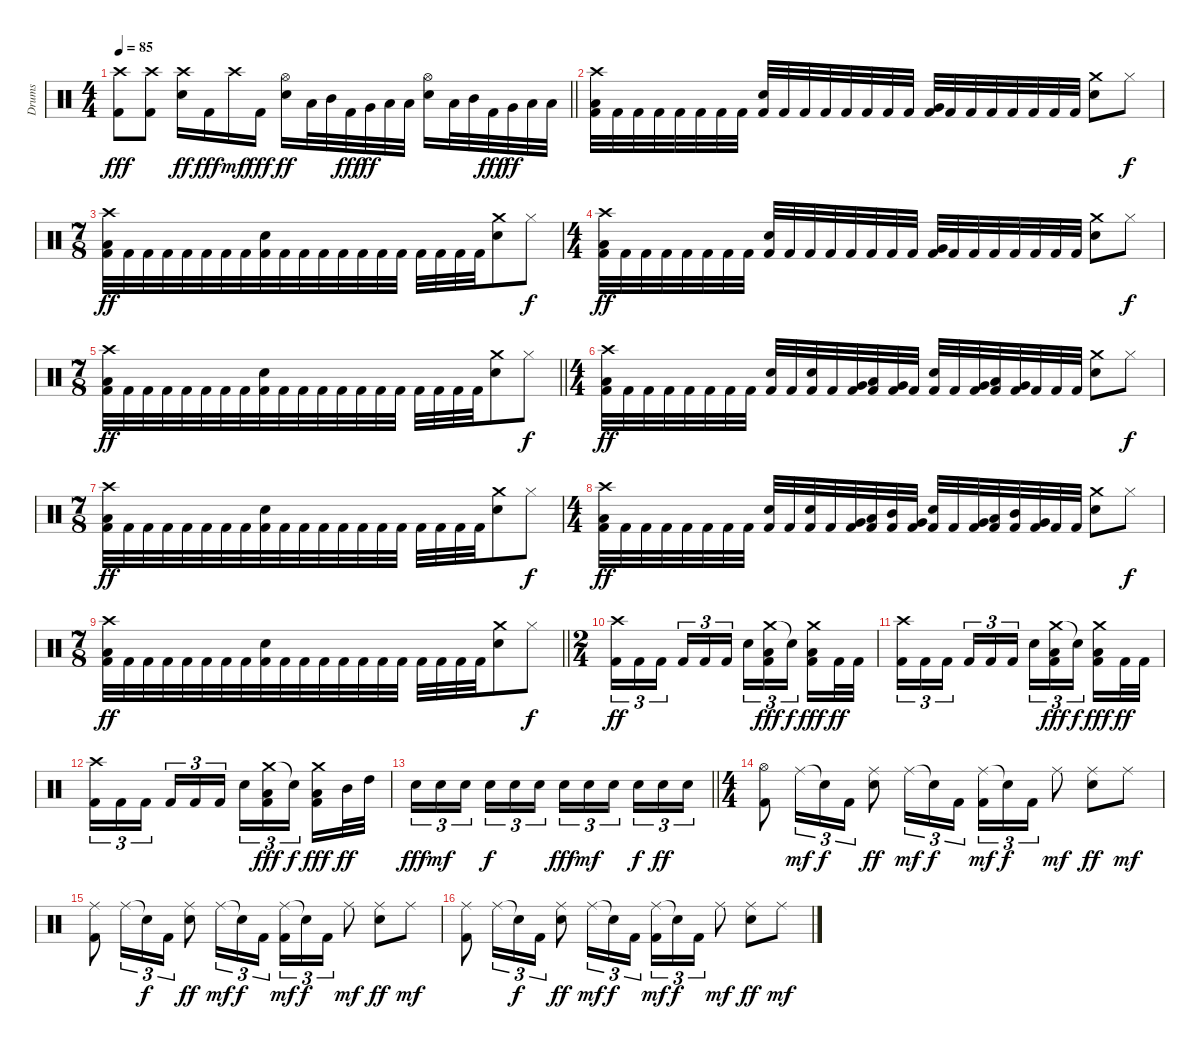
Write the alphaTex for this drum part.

\track ("Drums" "Drums") {instrument percussion}
\staff {score}
\articulation defaults
\ts (4 4)
\tempo 85
\clef neutral
\barLineRight lightlight
\ks c
("Crash high (hit)" "Kick (hit) 2").8{dy fff} ("Crash high (hit)" "Kick (hit) 2").8 ("Crash high (hit)" "Snare (hit) 2").16{dy ff} "Kick (hit) 2".16{dy fff} "Crash high (hit)".16{dy mf} "Kick (hit) 2".16{dy fff} ("Hi-Hat (open)" "Snare (hit) 2").16{dy ff} "Low Tom (hit)".32 "Mid Tom (hit)".32 "Kick (hit) 2".32{dy fff} "Very Low Tom (hit)".32{dy ff} "Low Floor Tom (hit)".32 "Low Tom (hit)".32 ("Hi-Hat (open)" "Snare (hit) 2").16 "Low Tom (hit)".32 "Mid Tom (hit)".32 "Kick (hit) 2".32{dy fff} "Very Low Tom (hit)".32{dy ff} "Low Floor Tom (hit)".32 "Low Tom (hit)".32 |
\section ("" "")
("Crash high (hit)" "Low Tom (hit)" "Kick (hit) 2").32 "Kick (hit) 2".32 "Kick (hit) 2".32 "Kick (hit) 2".32 "Kick (hit) 2".32 "Kick (hit) 2".32 "Kick (hit) 2".32 "Kick (hit) 2".32 ("Snare (hit) 2" "Kick (hit) 2").32 "Kick (hit) 2".32 "Kick (hit) 2".32 "Kick (hit) 2".32 "Kick (hit) 2".32 "Kick (hit) 2".32 "Kick (hit) 2".32 "Kick (hit) 2".32 ("Very Low Tom (hit)" "Kick (hit) 2").32 "Kick (hit) 2".32 "Kick (hit) 2".32 "Kick (hit) 2".32 "Kick (hit) 2".32 "Kick (hit) 2".32 "Kick (hit) 2".32 "Kick (hit) 2".32 ("Crash medium (hit)" "Snare (hit) 2").8 "Hi-Hat (closed)".8{dy f} |
\ts (7 8)
("Crash high (hit)" "Low Tom (hit)" "Kick (hit) 2").32{dy ff} "Kick (hit) 2".32 "Kick (hit) 2".32 "Kick (hit) 2".32 "Kick (hit) 2".32 "Kick (hit) 2".32 "Kick (hit) 2".32 "Kick (hit) 2".32 ("Snare (hit) 2" "Kick (hit) 2").32 "Kick (hit) 2".32 "Kick (hit) 2".32 "Kick (hit) 2".32 "Kick (hit) 2".32 "Kick (hit) 2".32 "Kick (hit) 2".32 "Kick (hit) 2".32 "Kick (hit) 2".32 "Kick (hit) 2".32 "Kick (hit) 2".32 "Kick (hit) 2".32 ("Crash medium (hit)" "Snare (hit) 2").8 "Hi-Hat (closed)".8{dy f} |
\ts (4 4)
("Crash high (hit)" "Low Tom (hit)" "Kick (hit) 2").32{dy ff} "Kick (hit) 2".32 "Kick (hit) 2".32 "Kick (hit) 2".32 "Kick (hit) 2".32 "Kick (hit) 2".32 "Kick (hit) 2".32 "Kick (hit) 2".32 ("Snare (hit) 2" "Kick (hit) 2").32 "Kick (hit) 2".32 "Kick (hit) 2".32 "Kick (hit) 2".32 "Kick (hit) 2".32 "Kick (hit) 2".32 "Kick (hit) 2".32 "Kick (hit) 2".32 ("Very Low Tom (hit)" "Kick (hit) 2").32 "Kick (hit) 2".32 "Kick (hit) 2".32 "Kick (hit) 2".32 "Kick (hit) 2".32 "Kick (hit) 2".32 "Kick (hit) 2".32 "Kick (hit) 2".32 ("Crash medium (hit)" "Snare (hit) 2").8 "Hi-Hat (closed)".8{dy f} |
\ts (7 8)
\barLineRight lightlight
("Crash high (hit)" "Low Tom (hit)" "Kick (hit) 2").32{dy ff} "Kick (hit) 2".32 "Kick (hit) 2".32 "Kick (hit) 2".32 "Kick (hit) 2".32 "Kick (hit) 2".32 "Kick (hit) 2".32 "Kick (hit) 2".32 ("Snare (hit) 2" "Kick (hit) 2").32 "Kick (hit) 2".32 "Kick (hit) 2".32 "Kick (hit) 2".32 "Kick (hit) 2".32 "Kick (hit) 2".32 "Kick (hit) 2".32 "Kick (hit) 2".32 "Kick (hit) 2".32 "Kick (hit) 2".32 "Kick (hit) 2".32 "Kick (hit) 2".32 ("Crash medium (hit)" "Snare (hit) 2").8 "Hi-Hat (closed)".8{dy f} |
\ts (4 4)
("Crash high (hit)" "Low Tom (hit)" "Kick (hit) 2").32{dy ff} "Kick (hit) 2".32 "Kick (hit) 2".32 "Kick (hit) 2".32 "Kick (hit) 2".32 "Kick (hit) 2".32 "Kick (hit) 2".32 "Kick (hit) 2".32 ("Snare (hit) 2" "Kick (hit) 2").32 "Kick (hit) 2".32 ("Snare (hit) 2" "Kick (hit) 2").32 "Kick (hit) 2".32 ("Very Low Tom (hit)" "Kick (hit) 2").32 ("Low Tom (hit)" "Kick (hit) 2").32 ("Very Low Tom (hit)" "Kick (hit) 2").32 "Kick (hit) 2".32 ("Snare (hit) 2" "Kick (hit) 2").32 "Kick (hit) 2".32 ("Very Low Tom (hit)" "Kick (hit) 2").32 ("Low Tom (hit)" "Kick (hit) 2").32 ("Very Low Tom (hit)" "Kick (hit) 2").32 "Kick (hit) 2".32 "Kick (hit) 2".32 "Kick (hit) 2".32 ("Crash medium (hit)" "Snare (hit) 2").8 "Hi-Hat (closed)".8{dy f} |
\ts (7 8)
("Crash high (hit)" "Low Tom (hit)" "Kick (hit) 2").32{dy ff} "Kick (hit) 2".32 "Kick (hit) 2".32 "Kick (hit) 2".32 "Kick (hit) 2".32 "Kick (hit) 2".32 "Kick (hit) 2".32 "Kick (hit) 2".32 ("Snare (hit) 2" "Kick (hit) 2").32 "Kick (hit) 2".32 "Kick (hit) 2".32 "Kick (hit) 2".32 "Kick (hit) 2".32 "Kick (hit) 2".32 "Kick (hit) 2".32 "Kick (hit) 2".32 "Kick (hit) 2".32 "Kick (hit) 2".32 "Kick (hit) 2".32 "Kick (hit) 2".32 ("Crash medium (hit)" "Snare (hit) 2").8 "Hi-Hat (closed)".8{dy f} |
\ts (4 4)
("Crash high (hit)" "Low Tom (hit)" "Kick (hit) 2").32{dy ff} "Kick (hit) 2".32 "Kick (hit) 2".32 "Kick (hit) 2".32 "Kick (hit) 2".32 "Kick (hit) 2".32 "Kick (hit) 2".32 "Kick (hit) 2".32 ("Snare (hit) 2" "Kick (hit) 2").32 "Kick (hit) 2".32 ("Snare (hit) 2" "Kick (hit) 2").32 "Kick (hit) 2".32 ("Very Low Tom (hit)" "Kick (hit) 2").32 ("Low Tom (hit)" "Kick (hit) 2").32 ("Mid Tom (hit)" "Kick (hit) 2").32 ("Very Low Tom (hit)" "Kick (hit) 2").32 ("Snare (hit) 2" "Kick (hit) 2").32 "Kick (hit) 2".32 ("Very Low Tom (hit)" "Kick (hit) 2").32 ("Low Tom (hit)" "Kick (hit) 2").32 ("Mid Tom (hit)" "Kick (hit) 2").32 ("Very Low Tom (hit)" "Kick (hit) 2").32 "Kick (hit) 2".32 "Kick (hit) 2".32 ("Crash medium (hit)" "Snare (hit) 2").8 "Hi-Hat (closed)".8{dy f} |
\ts (7 8)
\barLineRight lightlight
("Crash high (hit)" "Low Tom (hit)" "Kick (hit) 2").32{dy ff} "Kick (hit) 2".32 "Kick (hit) 2".32 "Kick (hit) 2".32 "Kick (hit) 2".32 "Kick (hit) 2".32 "Kick (hit) 2".32 "Kick (hit) 2".32 ("Snare (hit) 2" "Kick (hit) 2").32 "Kick (hit) 2".32 "Kick (hit) 2".32 "Kick (hit) 2".32 "Kick (hit) 2".32 "Kick (hit) 2".32 "Kick (hit) 2".32 "Kick (hit) 2".32 "Kick (hit) 2".32 "Kick (hit) 2".32 "Kick (hit) 2".32 "Kick (hit) 2".32 ("Crash medium (hit)" "Snare (hit) 2").8 "Hi-Hat (closed)".8{dy f} |
\ts (2 4)
\section ("" "")
("Crash high (hit)" "Kick (hit) 2").16{tu (3 2) dy ff} "Kick (hit) 2".16{tu (3 2)} "Kick (hit) 2".16{tu (3 2) beam splitsecondary} "Kick (hit) 2".16{tu (3 2)} "Kick (hit) 2".16{tu (3 2)} "Kick (hit) 2".16{tu (3 2)} "Snare (hit) 2".16{tu (3 2)} ("Crash medium (hit)" "Low Floor Tom (hit)" "Kick (hit) 2").16{tu (3 2) dy fff} "Snare (hit)"{t}.16{tu (3 2) dy f beam splitsecondary} ("Crash medium (hit)" "Low Floor Tom (hit)" "Kick (hit) 2").16{dy fff} "Kick (hit) 2".32{dy ff} "Kick (hit) 2".32 |
("Crash high (hit)" "Kick (hit) 2").16{tu (3 2)} "Kick (hit) 2".16{tu (3 2)} "Kick (hit) 2".16{tu (3 2) beam splitsecondary} "Kick (hit) 2".16{tu (3 2)} "Kick (hit) 2".16{tu (3 2)} "Kick (hit) 2".16{tu (3 2)} "Snare (hit) 2".16{tu (3 2)} ("Crash medium (hit)" "Low Floor Tom (hit)" "Kick (hit) 2").16{tu (3 2) dy fff} "Snare (hit)"{t}.16{tu (3 2) dy f beam splitsecondary} ("Crash medium (hit)" "Low Floor Tom (hit)" "Kick (hit) 2").16{dy fff} "Kick (hit) 2".32{dy ff} "Kick (hit) 2".32 |
("Crash high (hit)" "Kick (hit) 2").16{tu (3 2)} "Kick (hit) 2".16{tu (3 2)} "Kick (hit) 2".16{tu (3 2) beam splitsecondary} "Kick (hit) 2".16{tu (3 2)} "Kick (hit) 2".16{tu (3 2)} "Kick (hit) 2".16{tu (3 2)} "Snare (hit) 2".16{tu (3 2)} ("Crash medium (hit)" "Low Floor Tom (hit)" "Kick (hit) 2").16{tu (3 2) dy fff} "Snare (hit)"{t}.16{tu (3 2) dy f beam splitsecondary} ("Crash medium (hit)" "Low Floor Tom (hit)" "Kick (hit) 2").16{dy fff} "Mid Tom (hit)".32{dy ff} "High Tom (hit)".32 |
\barLineRight lightlight "Snare (hit) 2".16{tu (3 2) dy fff} "Snare (hit) 2".16{tu (3 2) dy mf} "Snare (hit) 2".16{tu (3 2) beam splitsecondary} "Snare (hit) 2".16{tu (3 2) dy f} "Snare (hit) 2".16{tu (3 2)} "Snare (hit) 2".16{tu (3 2)} "Snare (hit) 2".16{tu (3 2) dy fff} "Snare (hit) 2".16{tu (3 2) dy mf} "Snare (hit) 2".16{tu (3 2) beam splitsecondary} "Snare (hit) 2".16{tu (3 2) dy f} "Snare (hit) 2".16{tu (3 2) dy ff} "Snare (hit) 2".16{tu (3 2)}
|
\ts (4 4)
\section ("" "")
("Hi-Hat (open)" "Kick (hit) 2").8 "Ride (middle)".16{tu (3 2) dy mf} "Snare (hit)"{t}.16{tu (3 2) dy f} "Kick (hit) 2".16{tu (3 2)} ("Ride (middle)" "Snare (hit) 2").8{dy ff} "Ride (middle)".16{tu (3 2) dy mf} "Snare (hit)"{t}.16{tu (3 2) dy f} "Kick (hit) 2".16{tu (3 2)} ("Ride (middle)" "Kick (hit) 2").16{tu (3 2) dy mf} "Snare (hit)"{t}.16{tu (3 2) dy f} "Kick (hit) 2".16{tu (3 2)} "Ride (middle)".8{dy mf} ("Ride (middle)" "Snare (hit) 2").8{dy ff} "Ride (middle)".8{dy mf} |
("Ride (middle)" "Kick (hit) 2").8 "Ride (middle)".16{tu (3 2)} "Snare (hit)"{t}.16{tu (3 2) dy f} "Kick (hit) 2".16{tu (3 2)} ("Ride (middle)" "Snare (hit) 2").8{dy ff} "Ride (middle)".16{tu (3 2) dy mf} "Snare (hit)"{t}.16{tu (3 2) dy f} "Kick (hit) 2".16{tu (3 2)} ("Ride (middle)" "Kick (hit) 2").16{tu (3 2) dy mf} "Snare (hit)"{t}.16{tu (3 2) dy f} "Kick (hit) 2".16{tu (3 2)} "Ride (middle)".8{dy mf} ("Ride (middle)" "Snare (hit) 2").8{dy ff} "Ride (middle)".8{dy mf} |
("Ride (middle)" "Kick (hit) 2").8 "Ride (middle)".16{tu (3 2)} "Snare (hit)"{t}.16{tu (3 2) dy f} "Kick (hit) 2".16{tu (3 2)} ("Ride (middle)" "Snare (hit) 2").8{dy ff} "Ride (middle)".16{tu (3 2) dy mf} "Snare (hit)"{t}.16{tu (3 2) dy f} "Kick (hit) 2".16{tu (3 2)} ("Ride (middle)" "Kick (hit) 2").16{tu (3 2) dy mf} "Snare (hit)"{t}.16{tu (3 2) dy f} "Kick (hit) 2".16{tu (3 2)} "Ride (middle)".8{dy mf} ("Ride (middle)" "Snare (hit) 2").8{dy ff} "Ride (middle)".8{dy mf}
